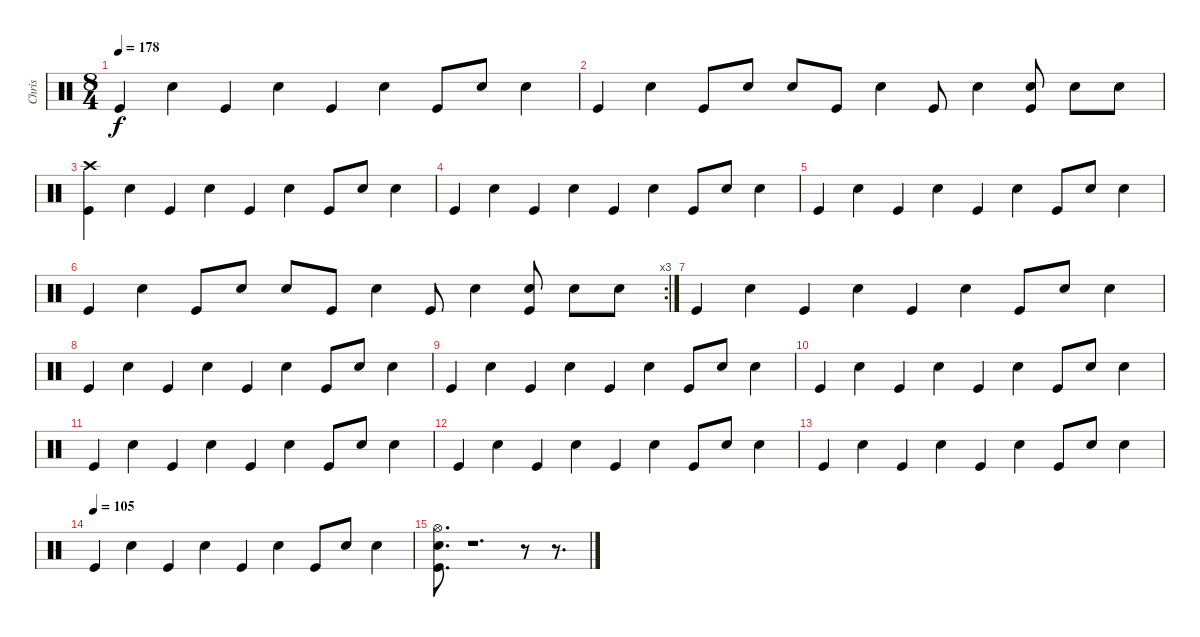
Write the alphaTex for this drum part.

\track ("Chris" "Chris") {instrument percussion}
\staff {score}
\articulation defaults
\ts (8 4)
\tempo 178
\clef neutral
\ks c "Kick (hit)".4{dy f} "Electric Snare (hit)".4 "Kick (hit)".4 "Electric Snare (hit)".4 "Kick (hit)".4 "Electric Snare (hit)".4 "Kick (hit)".8 "Electric Snare (hit)".8 "Electric Snare (hit)".4
|
"Kick (hit)".4 "Electric Snare (hit)".4 "Kick (hit)".8 "Electric Snare (hit)".8 "Electric Snare (hit)".8 "Kick (hit)".8 "Electric Snare (hit)".4 "Kick (hit)".8 "Electric Snare (hit)".4 ("Electric Snare (hit)" "Kick (hit)").8 "Electric Snare (hit)".8 "Electric Snare (hit)".8 |
("Crash high (hit)" "Kick (hit)").4 "Electric Snare (hit)".4 "Kick (hit)".4 "Electric Snare (hit)".4 "Kick (hit)".4 "Electric Snare (hit)".4 "Kick (hit)".8 "Electric Snare (hit)".8 "Electric Snare (hit)".4 |
"Kick (hit)".4 "Electric Snare (hit)".4 "Kick (hit)".4 "Electric Snare (hit)".4 "Kick (hit)".4 "Electric Snare (hit)".4 "Kick (hit)".8 "Electric Snare (hit)".8 "Electric Snare (hit)".4 |
"Kick (hit)".4 "Electric Snare (hit)".4 "Kick (hit)".4 "Electric Snare (hit)".4 "Kick (hit)".4 "Electric Snare (hit)".4 "Kick (hit)".8 "Electric Snare (hit)".8 "Electric Snare (hit)".4 |
\rc 3 "Kick (hit)".4 "Electric Snare (hit)".4 "Kick (hit)".8 "Electric Snare (hit)".8 "Electric Snare (hit)".8 "Kick (hit)".8 "Electric Snare (hit)".4 "Kick (hit)".8 "Electric Snare (hit)".4
("Electric Snare (hit)" "Kick (hit)").8 "Electric Snare (hit)".8 "Electric Snare (hit)".8 |
"Kick (hit)".4 "Electric Snare (hit)".4 "Kick (hit)".4 "Electric Snare (hit)".4 "Kick (hit)".4 "Electric Snare (hit)".4 "Kick (hit)".8 "Electric Snare (hit)".8 "Electric Snare (hit)".4 |
"Kick (hit)".4 "Electric Snare (hit)".4 "Kick (hit)".4 "Electric Snare (hit)".4 "Kick (hit)".4 "Electric Snare (hit)".4 "Kick (hit)".8 "Electric Snare (hit)".8 "Electric Snare (hit)".4 |
"Kick (hit)".4 "Electric Snare (hit)".4 "Kick (hit)".4 "Electric Snare (hit)".4 "Kick (hit)".4 "Electric Snare (hit)".4 "Kick (hit)".8 "Electric Snare (hit)".8 "Electric Snare (hit)".4 |
"Kick (hit)".4 "Electric Snare (hit)".4 "Kick (hit)".4 "Electric Snare (hit)".4 "Kick (hit)".4 "Electric Snare (hit)".4 "Kick (hit)".8 "Electric Snare (hit)".8 "Electric Snare (hit)".4 |
"Kick (hit)".4 "Electric Snare (hit)".4 "Kick (hit)".4 "Electric Snare (hit)".4 "Kick (hit)".4 "Electric Snare (hit)".4 "Kick (hit)".8 "Electric Snare (hit)".8 "Electric Snare (hit)".4 |
"Kick (hit)".4 "Electric Snare (hit)".4 "Kick (hit)".4 "Electric Snare (hit)".4 "Kick (hit)".4 "Electric Snare (hit)".4 "Kick (hit)".8 "Electric Snare (hit)".8 "Electric Snare (hit)".4 |
"Kick (hit)".4 "Electric Snare (hit)".4 "Kick (hit)".4 "Electric Snare (hit)".4 "Kick (hit)".4 "Electric Snare (hit)".4 "Kick (hit)".8 "Electric Snare (hit)".8 "Electric Snare (hit)".4 |
\tempo (105)
"Kick (hit)".4 "Electric Snare (hit)".4 "Kick (hit)".4 "Electric Snare (hit)".4 "Kick (hit)".4 "Electric Snare (hit)".4 "Kick (hit)".8 "Electric Snare (hit)".8 "Electric Snare (hit)".4 |
("Hi-Hat (open)" "Electric Snare (hit)" "Kick (hit)").8{d} r.1{d} r.8 r.8{d}
